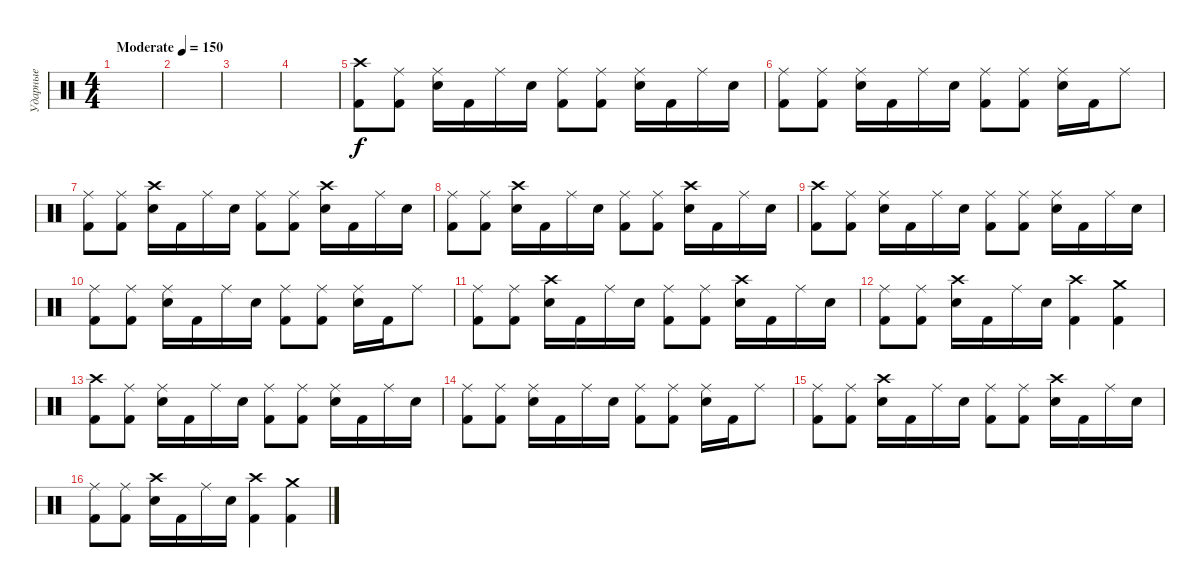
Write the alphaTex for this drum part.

\track ("Ударные" "Ударные") {instrument percussion}
\staff {score}
\articulation defaults
\ts (4 4)
\tempo (150 "Moderate")
\clef neutral
\ks c
|
|
|
|
("Crash high (hit)" "Kick (hit) 2").8 ("Ride (middle)" "Kick (hit) 2").8 ("Ride (middle)" "Electric Snare (hit)").16 "Kick (hit) 2".16 "Ride (middle)".16 "Electric Snare (hit)".16 ("Ride (middle)" "Kick (hit) 2").8 ("Ride (middle)" "Kick (hit) 2").8 ("Ride (middle)" "Electric Snare (hit)").16 "Kick (hit) 2".16 "Ride (middle)".16 "Electric Snare (hit)".16 |
("Ride (middle)" "Kick (hit) 2").8 ("Ride (middle)" "Kick (hit) 2").8 ("Ride (middle)" "Electric Snare (hit)").16 "Kick (hit) 2".16 "Ride (middle)".16 "Electric Snare (hit)".16 ("Ride (middle)" "Kick (hit) 2").8 ("Ride (middle)" "Kick (hit) 2").8 ("Ride (middle)" "Electric Snare (hit)").16 "Kick (hit) 2".16 "Ride (middle)".8 |
("Ride (middle)" "Kick (hit) 2").8 ("Ride (middle)" "Kick (hit) 2").8 ("Crash high (hit)" "Electric Snare (hit)").16 "Kick (hit) 2".16 "Ride (middle)".16 "Electric Snare (hit)".16 ("Ride (middle)" "Kick (hit) 2").8 ("Ride (middle)" "Kick (hit) 2").8 ("Crash high (hit)" "Electric Snare (hit)").16 "Kick (hit) 2".16 "Ride (middle)".16 "Electric Snare (hit)".16 |
("Ride (middle)" "Kick (hit) 2").8 ("Ride (middle)" "Kick (hit) 2").8 ("Crash high (hit)" "Electric Snare (hit)").16 "Kick (hit) 2".16 "Ride (middle)".16 "Electric Snare (hit)".16 ("Ride (middle)" "Kick (hit) 2").8 ("Ride (middle)" "Kick (hit) 2").8 ("Crash high (hit)" "Electric Snare (hit)").16 "Kick (hit) 2".16 "Ride (middle)".16 "Electric Snare (hit)".16 |
("Crash high (hit)" "Kick (hit) 2").8 ("Ride (middle)" "Kick (hit) 2").8 ("Ride (middle)" "Electric Snare (hit)").16 "Kick (hit) 2".16 "Ride (middle)".16 "Electric Snare (hit)".16 ("Ride (middle)" "Kick (hit) 2").8 ("Ride (middle)" "Kick (hit) 2").8 ("Ride (middle)" "Electric Snare (hit)").16 "Kick (hit) 2".16 "Ride (middle)".16 "Electric Snare (hit)".16 |
("Ride (middle)" "Kick (hit) 2").8 ("Ride (middle)" "Kick (hit) 2").8 ("Ride (middle)" "Electric Snare (hit)").16 "Kick (hit) 2".16 "Ride (middle)".16 "Electric Snare (hit)".16 ("Ride (middle)" "Kick (hit) 2").8 ("Ride (middle)" "Kick (hit) 2").8 ("Ride (middle)" "Electric Snare (hit)").16 "Kick (hit) 2".16 "Ride (middle)".8 |
("Ride (middle)" "Kick (hit) 2").8 ("Ride (middle)" "Kick (hit) 2").8 ("Crash high (hit)" "Electric Snare (hit)").16 "Kick (hit) 2".16 "Ride (middle)".16 "Electric Snare (hit)".16 ("Ride (middle)" "Kick (hit) 2").8 ("Ride (middle)" "Kick (hit) 2").8 ("Crash high (hit)" "Electric Snare (hit)").16 "Kick (hit) 2".16 "Ride (middle)".16 "Electric Snare (hit)".16 |
("Ride (middle)" "Kick (hit) 2").8 ("Ride (middle)" "Kick (hit) 2").8 ("Crash high (hit)" "Electric Snare (hit)").16 "Kick (hit) 2".16 "Ride (middle)".16 "Electric Snare (hit)".16 ("Crash high (hit)" "Kick (hit) 2").4 ("Crash medium (hit)" "Kick (hit) 2").4 |
("Crash high (hit)" "Kick (hit) 2").8 ("Ride (middle)" "Kick (hit) 2").8 ("Ride (middle)" "Electric Snare (hit)").16 "Kick (hit) 2".16 "Ride (middle)".16 "Electric Snare (hit)".16 ("Ride (middle)" "Kick (hit) 2").8 ("Ride (middle)" "Kick (hit) 2").8 ("Ride (middle)" "Electric Snare (hit)").16 "Kick (hit) 2".16 "Ride (middle)".16 "Electric Snare (hit)".16 |
("Ride (middle)" "Kick (hit) 2").8 ("Ride (middle)" "Kick (hit) 2").8 ("Ride (middle)" "Electric Snare (hit)").16 "Kick (hit) 2".16 "Ride (middle)".16 "Electric Snare (hit)".16 ("Ride (middle)" "Kick (hit) 2").8 ("Ride (middle)" "Kick (hit) 2").8 ("Ride (middle)" "Electric Snare (hit)").16 "Kick (hit) 2".16 "Ride (middle)".8 |
("Ride (middle)" "Kick (hit) 2").8 ("Ride (middle)" "Kick (hit) 2").8 ("Crash high (hit)" "Electric Snare (hit)").16 "Kick (hit) 2".16 "Ride (middle)".16 "Electric Snare (hit)".16 ("Ride (middle)" "Kick (hit) 2").8 ("Ride (middle)" "Kick (hit) 2").8 ("Crash high (hit)" "Electric Snare (hit)").16 "Kick (hit) 2".16 "Ride (middle)".16 "Electric Snare (hit)".16 |
("Ride (middle)" "Kick (hit) 2").8 ("Ride (middle)" "Kick (hit) 2").8 ("Crash high (hit)" "Electric Snare (hit)").16 "Kick (hit) 2".16 "Ride (middle)".16 "Electric Snare (hit)".16 ("Crash high (hit)" "Kick (hit) 2").4 ("Crash medium (hit)" "Kick (hit) 2").4
